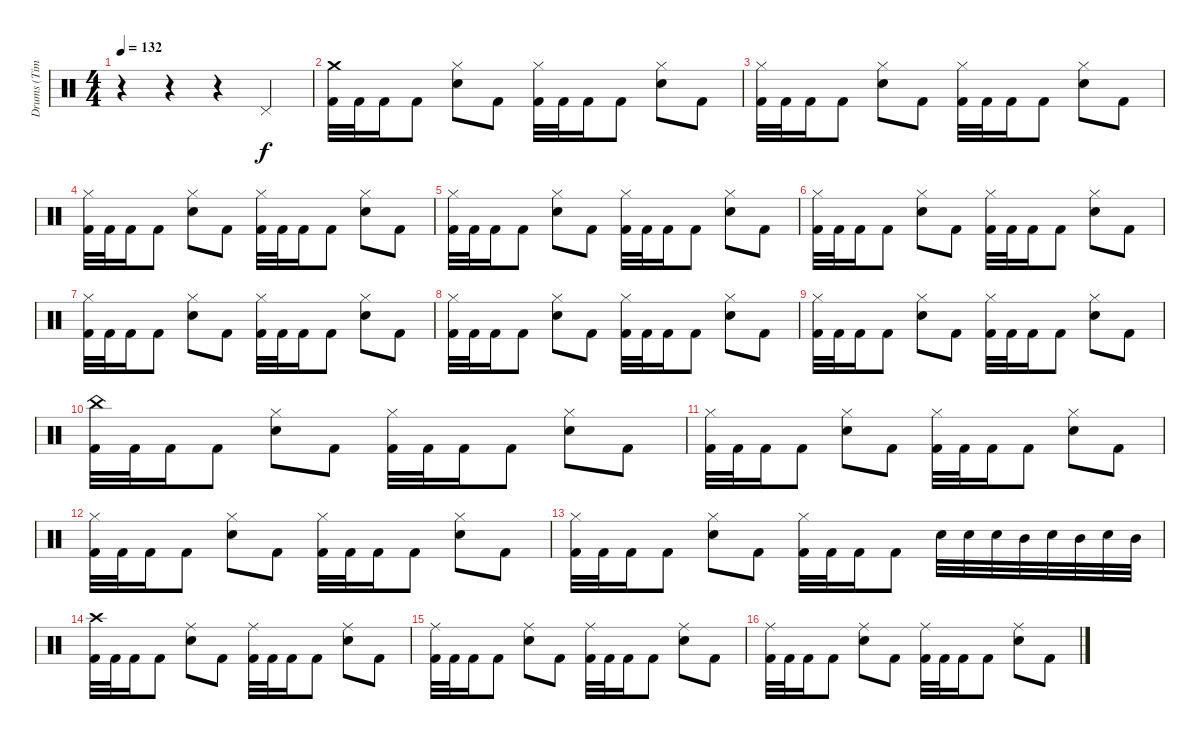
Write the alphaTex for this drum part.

\track ("Drums (Tim Alexander)" "Drums (Tim") {instrument percussion}
\staff {score}
\articulation defaults
\ts (4 4)
\tempo 132
\clef neutral
\ks c
r.4{dy f} r.4 r.4 "Pedal Hi-Hat (hit)".4 |
("Crash medium (hit)" "Kick (hit) 2").32 "Kick (hit) 2".32 "Kick (hit) 2".16 "Kick (hit) 2".8 ("Hi-Hat (closed)" "Snare (hit) 2").8 "Kick (hit) 2".8 ("Hi-Hat (closed)" "Kick (hit) 2").32 "Kick (hit) 2".32 "Kick (hit) 2".16 "Kick (hit) 2".8 ("Hi-Hat (closed)" "Snare (hit) 2").8 "Kick (hit) 2".8 |
("Hi-Hat (closed)" "Kick (hit) 2").32 "Kick (hit) 2".32 "Kick (hit) 2".16 "Kick (hit) 2".8 ("Hi-Hat (closed)" "Snare (hit) 2").8 "Kick (hit) 2".8 ("Hi-Hat (closed)" "Kick (hit) 2").32 "Kick (hit) 2".32 "Kick (hit) 2".16 "Kick (hit) 2".8 ("Hi-Hat (closed)" "Snare (hit) 2").8 "Kick (hit) 2".8 |
("Hi-Hat (closed)" "Kick (hit) 2").32 "Kick (hit) 2".32 "Kick (hit) 2".16 "Kick (hit) 2".8 ("Hi-Hat (closed)" "Snare (hit) 2").8 "Kick (hit) 2".8 ("Hi-Hat (closed)" "Kick (hit) 2").32 "Kick (hit) 2".32 "Kick (hit) 2".16 "Kick (hit) 2".8 ("Hi-Hat (closed)" "Snare (hit) 2").8 "Kick (hit) 2".8 |
("Hi-Hat (closed)" "Kick (hit) 2").32 "Kick (hit) 2".32 "Kick (hit) 2".16 "Kick (hit) 2".8 ("Hi-Hat (closed)" "Snare (hit) 2").8 "Kick (hit) 2".8 ("Hi-Hat (closed)" "Kick (hit) 2").32 "Kick (hit) 2".32 "Kick (hit) 2".16 "Kick (hit) 2".8 ("Hi-Hat (closed)" "Snare (hit) 2").8 "Kick (hit) 2".8 |
("Hi-Hat (closed)" "Kick (hit) 2").32 "Kick (hit) 2".32 "Kick (hit) 2".16 "Kick (hit) 2".8 ("Hi-Hat (closed)" "Snare (hit) 2").8 "Kick (hit) 2".8 ("Hi-Hat (closed)" "Kick (hit) 2").32 "Kick (hit) 2".32 "Kick (hit) 2".16 "Kick (hit) 2".8 ("Hi-Hat (closed)" "Snare (hit) 2").8 "Kick (hit) 2".8 |
("Hi-Hat (closed)" "Kick (hit) 2").32 "Kick (hit) 2".32 "Kick (hit) 2".16 "Kick (hit) 2".8 ("Hi-Hat (closed)" "Snare (hit) 2").8 "Kick (hit) 2".8 ("Hi-Hat (closed)" "Kick (hit) 2").32 "Kick (hit) 2".32 "Kick (hit) 2".16 "Kick (hit) 2".8 ("Hi-Hat (closed)" "Snare (hit) 2").8 "Kick (hit) 2".8 |
("Hi-Hat (closed)" "Kick (hit) 2").32 "Kick (hit) 2".32 "Kick (hit) 2".16 "Kick (hit) 2".8 ("Hi-Hat (closed)" "Snare (hit) 2").8 "Kick (hit) 2".8 ("Hi-Hat (closed)" "Kick (hit) 2").32 "Kick (hit) 2".32 "Kick (hit) 2".16 "Kick (hit) 2".8 ("Hi-Hat (closed)" "Snare (hit) 2").8 "Kick (hit) 2".8 |
("Hi-Hat (closed)" "Kick (hit) 2").32 "Kick (hit) 2".32 "Kick (hit) 2".16 "Kick (hit) 2".8 ("Hi-Hat (closed)" "Snare (hit) 2").8 "Kick (hit) 2".8 ("Hi-Hat (closed)" "Kick (hit) 2").32 "Kick (hit) 2".32 "Kick (hit) 2".16 "Kick (hit) 2".8 ("Hi-Hat (closed)" "Snare (hit) 2").8 "Kick (hit) 2".8 |
("China (hit)" "Kick (hit) 2").32 "Kick (hit) 2".32 "Kick (hit) 2".16 "Kick (hit) 2".8 ("Hi-Hat (closed)" "Snare (hit) 2").8 "Kick (hit) 2".8 ("Hi-Hat (closed)" "Kick (hit) 2").32 "Kick (hit) 2".32 "Kick (hit) 2".16 "Kick (hit) 2".8 ("Hi-Hat (closed)" "Snare (hit) 2").8 "Kick (hit) 2".8 |
("Hi-Hat (closed)" "Kick (hit) 2").32 "Kick (hit) 2".32 "Kick (hit) 2".16 "Kick (hit) 2".8 ("Hi-Hat (closed)" "Snare (hit) 2").8 "Kick (hit) 2".8 ("Hi-Hat (closed)" "Kick (hit) 2").32 "Kick (hit) 2".32 "Kick (hit) 2".16 "Kick (hit) 2".8 ("Hi-Hat (closed)" "Snare (hit) 2").8 "Kick (hit) 2".8 |
("Hi-Hat (closed)" "Kick (hit) 2").32 "Kick (hit) 2".32 "Kick (hit) 2".16 "Kick (hit) 2".8 ("Hi-Hat (closed)" "Snare (hit) 2").8 "Kick (hit) 2".8 ("Hi-Hat (closed)" "Kick (hit) 2").32 "Kick (hit) 2".32 "Kick (hit) 2".16 "Kick (hit) 2".8 ("Hi-Hat (closed)" "Snare (hit) 2").8 "Kick (hit) 2".8 |
("Hi-Hat (closed)" "Kick (hit) 2").32 "Kick (hit) 2".32 "Kick (hit) 2".16 "Kick (hit) 2".8 ("Hi-Hat (closed)" "Snare (hit) 2").8 "Kick (hit) 2".8 ("Hi-Hat (closed)" "Kick (hit) 2").32 "Kick (hit) 2".32 "Kick (hit) 2".16 "Kick (hit) 2".8 "Snare (hit) 2".32 "Snare (hit) 2".32 "Snare (hit) 2".32 "Mid Tom (hit)".32 "Snare (hit) 2".32 "Mid Tom (hit)".32 "Snare (hit) 2".32 "Mid Tom (hit)".32 |
("Crash high (hit)" "Kick (hit) 2").32 "Kick (hit) 2".32 "Kick (hit) 2".16 "Kick (hit) 2".8 ("Ride (middle)" "Snare (hit) 2").8 "Kick (hit) 2".8 ("Ride (middle)" "Kick (hit) 2").32 "Kick (hit) 2".32 "Kick (hit) 2".16 "Kick (hit) 2".8 ("Ride (middle)" "Snare (hit) 2").8 "Kick (hit) 2".8 |
("Ride (middle)" "Kick (hit) 2").32 "Kick (hit) 2".32 "Kick (hit) 2".16 "Kick (hit) 2".8 ("Ride (middle)" "Snare (hit) 2").8 "Kick (hit) 2".8 ("Ride (middle)" "Kick (hit) 2").32 "Kick (hit) 2".32 "Kick (hit) 2".16 "Kick (hit) 2".8 ("Ride (middle)" "Snare (hit) 2").8 "Kick (hit) 2".8 |
("Ride (middle)" "Kick (hit) 2").32 "Kick (hit) 2".32 "Kick (hit) 2".16 "Kick (hit) 2".8 ("Ride (middle)" "Snare (hit) 2").8 "Kick (hit) 2".8 ("Ride (middle)" "Kick (hit) 2").32 "Kick (hit) 2".32 "Kick (hit) 2".16 "Kick (hit) 2".8 ("Ride (middle)" "Snare (hit) 2").8 "Kick (hit) 2".8
